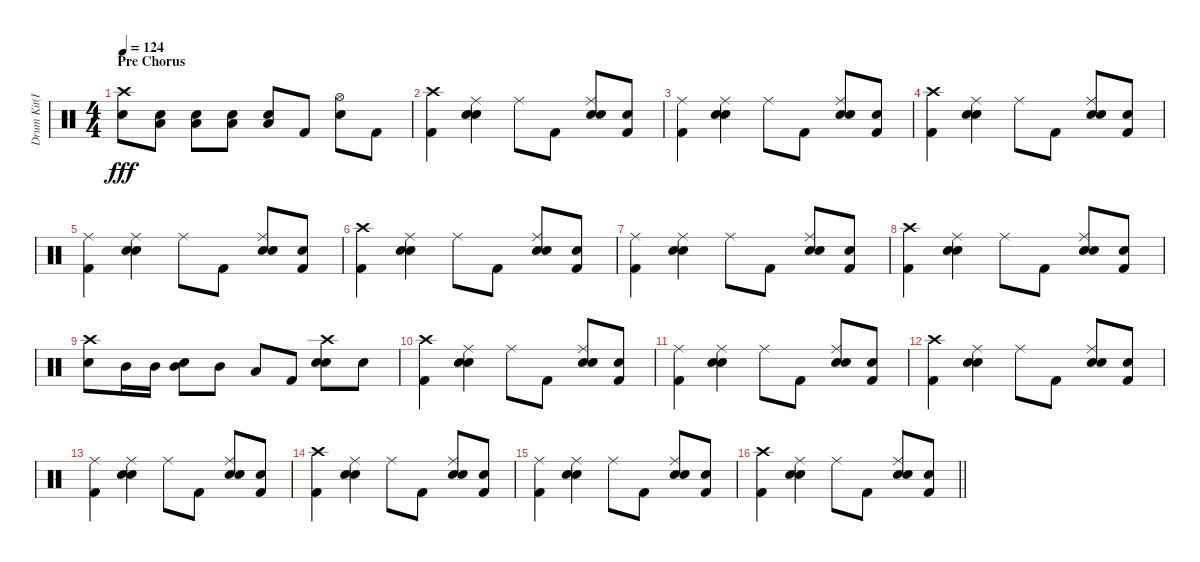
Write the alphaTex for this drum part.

\track ("Drum Kit(Inu)" "Drum Kit(I") {instrument percussion}
\staff {score}
\articulation defaults
\ts (4 4)
\section ("" "Pre Chorus")
\tempo 124
\clef neutral
\ks c
("Crash high (hit)" "Electric Snare (hit)").8{dy fff} ("Electric Snare (hit)" "Low Tom (hit)").8 ("Electric Snare (hit)" "Low Tom (hit)").8 ("Electric Snare (hit)" "Low Tom (hit)").8 ("Low Tom (hit)" "Electric Snare (hit)").8 "Kick (hit) 2".8 ("Electric Snare (hit)" "Hi-Hat (open)").8 "Kick (hit) 2".8 |
("Kick (hit) 2" "Crash high (hit)").4 ("Ride (middle)" "Electric Snare (hit)" "Hand Clap (hit)").4 "Ride (middle)".8 "Kick (hit) 2".8 ("Ride (middle)" "Electric Snare (hit)" "Hand Clap (hit)").8 ("Kick (hit) 2" "Hand Clap (hit)").8 |
("Ride (middle)" "Kick (hit) 2").4 ("Electric Snare (hit)" "Ride (middle)" "Hand Clap (hit)").4 "Ride (middle)".8 "Kick (hit) 2".8 ("Electric Snare (hit)" "Ride (middle)" "Hand Clap (hit)").8 ("Kick (hit) 2" "Hand Clap (hit)").8 |
("Kick (hit) 2" "Crash high (hit)").4 ("Ride (middle)" "Electric Snare (hit)" "Hand Clap (hit)").4 "Ride (middle)".8 "Kick (hit) 2".8 ("Ride (middle)" "Electric Snare (hit)" "Hand Clap (hit)").8 ("Kick (hit) 2" "Hand Clap (hit)").8 |
("Ride (middle)" "Kick (hit) 2").4 ("Electric Snare (hit)" "Ride (middle)" "Hand Clap (hit)").4 "Ride (middle)".8 "Kick (hit) 2".8 ("Electric Snare (hit)" "Ride (middle)" "Hand Clap (hit)").8 ("Kick (hit) 2" "Hand Clap (hit)").8 |
("Kick (hit) 2" "Crash high (hit)").4 ("Ride (middle)" "Electric Snare (hit)" "Hand Clap (hit)").4 "Ride (middle)".8 "Kick (hit) 2".8 ("Ride (middle)" "Electric Snare (hit)" "Hand Clap (hit)").8 ("Kick (hit) 2" "Hand Clap (hit)").8 |
("Ride (middle)" "Kick (hit) 2").4 ("Electric Snare (hit)" "Ride (middle)" "Hand Clap (hit)").4 "Ride (middle)".8 "Kick (hit) 2".8 ("Electric Snare (hit)" "Ride (middle)" "Hand Clap (hit)").8 ("Kick (hit) 2" "Hand Clap (hit)").8 |
("Kick (hit) 2" "Crash high (hit)").4 ("Ride (middle)" "Electric Snare (hit)" "Hand Clap (hit)").4 "Ride (middle)".8 "Kick (hit) 2".8 ("Ride (middle)" "Electric Snare (hit)" "Hand Clap (hit)").8 ("Kick (hit) 2" "Hand Clap (hit)").8 |
("Crash high (hit)" "Electric Snare (hit)").8 "Mid Tom (hit)".16 "Mid Tom (hit)".16 ("Mid Tom (hit)" "Hand Clap (hit)").8 "Mid Tom (hit)".8 "Low Tom (hit)".8 "Kick (hit) 2".8 ("Crash high (hit)" "Electric Snare (hit)" "Hand Clap (hit)").8 "Hand Clap (hit)".8 |
("Kick (hit) 2" "Crash high (hit)").4 ("Ride (middle)" "Electric Snare (hit)" "Hand Clap (hit)").4 "Ride (middle)".8 "Kick (hit) 2".8 ("Ride (middle)" "Electric Snare (hit)" "Hand Clap (hit)").8 ("Kick (hit) 2" "Hand Clap (hit)").8 |
("Ride (middle)" "Kick (hit) 2").4 ("Electric Snare (hit)" "Ride (middle)" "Hand Clap (hit)").4 "Ride (middle)".8 "Kick (hit) 2".8 ("Electric Snare (hit)" "Ride (middle)" "Hand Clap (hit)").8 ("Kick (hit) 2" "Hand Clap (hit)").8 |
("Kick (hit) 2" "Crash high (hit)").4 ("Ride (middle)" "Electric Snare (hit)" "Hand Clap (hit)").4 "Ride (middle)".8 "Kick (hit) 2".8 ("Ride (middle)" "Electric Snare (hit)" "Hand Clap (hit)").8 ("Kick (hit) 2" "Hand Clap (hit)").8 |
("Ride (middle)" "Kick (hit) 2").4 ("Electric Snare (hit)" "Ride (middle)" "Hand Clap (hit)").4 "Ride (middle)".8 "Kick (hit) 2".8 ("Electric Snare (hit)" "Ride (middle)" "Hand Clap (hit)").8 ("Kick (hit) 2" "Hand Clap (hit)").8 |
("Kick (hit) 2" "Crash high (hit)").4 ("Ride (middle)" "Electric Snare (hit)" "Hand Clap (hit)").4 "Ride (middle)".8 "Kick (hit) 2".8 ("Ride (middle)" "Electric Snare (hit)" "Hand Clap (hit)").8 ("Kick (hit) 2" "Hand Clap (hit)").8 |
("Ride (middle)" "Kick (hit) 2").4 ("Electric Snare (hit)" "Ride (middle)" "Hand Clap (hit)").4 "Ride (middle)".8 "Kick (hit) 2".8 ("Electric Snare (hit)" "Ride (middle)" "Hand Clap (hit)").8 ("Kick (hit) 2" "Hand Clap (hit)").8 |
\barLineRight lightlight
("Kick (hit) 2" "Crash high (hit)").4 ("Ride (middle)" "Electric Snare (hit)" "Hand Clap (hit)").4 "Ride (middle)".8 "Kick (hit) 2".8 ("Ride (middle)" "Electric Snare (hit)" "Hand Clap (hit)").8 ("Kick (hit) 2" "Hand Clap (hit)").8
